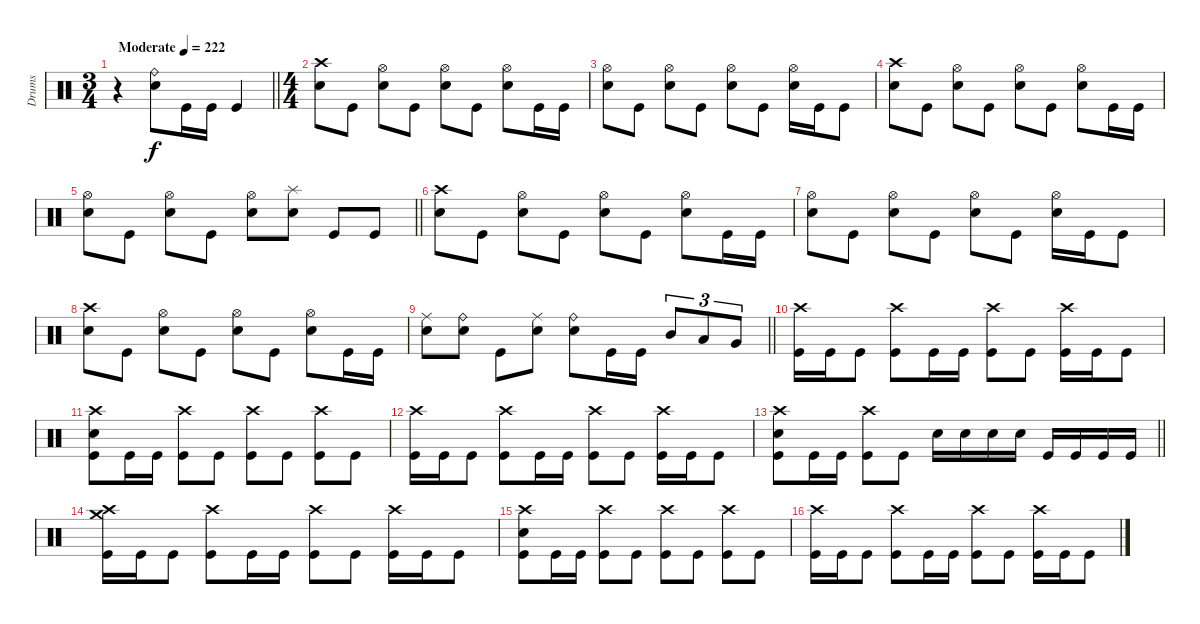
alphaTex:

\track ("Drums" "Drums") {instrument percussion}
\staff
\articulation defaults
\ts (3 4)
\tempo (222 "Moderate")
\clef neutral
\barLineRight lightlight
\ks c
r.4{dy f} ("Ride (bell)" "Electric Snare (hit)").8 "Kick (hit)".16 "Kick (hit)".16 "Kick (hit)".4 |
\ts (4 4)
("Crash high (hit)" "Electric Snare (hit)").8 "Kick (hit)".8 ("Hi-Hat (open)" "Electric Snare (hit)").8 "Kick (hit)".8 ("Hi-Hat (open)" "Electric Snare (hit)").8 "Kick (hit)".8 ("Hi-Hat (open)" "Electric Snare (hit)").8 "Kick (hit)".16 "Kick (hit)".16 |
("Hi-Hat (open)" "Electric Snare (hit)").8 "Kick (hit)".8 ("Hi-Hat (open)" "Electric Snare (hit)").8 "Kick (hit)".8 ("Hi-Hat (open)" "Electric Snare (hit)").8 "Kick (hit)".8 ("Hi-Hat (open)" "Electric Snare (hit)").16 "Kick (hit)".16 "Kick (hit)".8 |
("Crash high (hit)" "Electric Snare (hit)").8 "Kick (hit)".8 ("Hi-Hat (open)" "Electric Snare (hit)").8 "Kick (hit)".8 ("Hi-Hat (open)" "Electric Snare (hit)").8 "Kick (hit)".8 ("Hi-Hat (open)" "Electric Snare (hit)").8 "Kick (hit)".16 "Kick (hit)".16 |
\barLineRight lightlight
("Hi-Hat (open)" "Electric Snare (hit)").8 "Kick (hit)".8 ("Hi-Hat (open)" "Electric Snare (hit)").8 "Kick (hit)".8 ("Hi-Hat (open)" "Electric Snare (hit)").8 ("Splash (hit)" "Electric Snare (hit)").8 "Kick (hit)".8 "Kick (hit)".8 |
("Crash high (hit)" "Electric Snare (hit)").8 "Kick (hit)".8 ("Hi-Hat (open)" "Electric Snare (hit)").8 "Kick (hit)".8 ("Hi-Hat (open)" "Electric Snare (hit)").8 "Kick (hit)".8 ("Hi-Hat (open)" "Electric Snare (hit)").8 "Kick (hit)".16 "Kick (hit)".16 |
("Hi-Hat (open)" "Electric Snare (hit)").8 "Kick (hit)".8 ("Hi-Hat (open)" "Electric Snare (hit)").8 "Kick (hit)".8 ("Hi-Hat (open)" "Electric Snare (hit)").8 "Kick (hit)".8 ("Hi-Hat (open)" "Electric Snare (hit)").16 "Kick (hit)".16 "Kick (hit)".8 |
("Crash high (hit)" "Electric Snare (hit)").8 "Kick (hit)".8 ("Hi-Hat (open)" "Electric Snare (hit)").8 "Kick (hit)".8 ("Hi-Hat (open)" "Electric Snare (hit)").8 "Kick (hit)".8 ("Hi-Hat (open)" "Electric Snare (hit)").8 "Kick (hit)".16 "Kick (hit)".16 |
\barLineRight lightlight
("Ride (middle)" "Electric Snare (hit)").8 ("Ride (bell)" "Electric Snare (hit)").8 "Kick (hit)".8 ("Ride (middle)" "Electric Snare (hit)").8 ("Ride (bell)" "Electric Snare (hit)").8 "Kick (hit)".16 "Kick (hit)".16 "Mid Tom (hit)".8{tu (3 2)} "Low Tom (hit)".8{tu (3 2)} "Very Low Tom (hit)".8{tu (3 2)} |
("Crash high (hit)" "Kick (hit)").16 "Kick (hit)".16 "Kick (hit)".8 ("Crash high (hit)" "Kick (hit)").8 "Kick (hit)".16 "Kick (hit)".16 ("Crash high (hit)" "Kick (hit)").8 "Kick (hit)".8 ("Crash high (hit)" "Kick (hit)").16 "Kick (hit)".16 "Kick (hit)".8 |
("Crash high (hit)" "Electric Snare (hit)" "Kick (hit)").8 "Kick (hit)".16 "Kick (hit)".16 ("Crash high (hit)" "Kick (hit)").8 "Kick (hit)".8 ("Crash high (hit)" "Kick (hit)").8 "Kick (hit)".8 ("Crash high (hit)" "Kick (hit)").8 "Kick (hit)".8 |
("Crash high (hit)" "Kick (hit)").16 "Kick (hit)".16 "Kick (hit)".8 ("Crash high (hit)" "Kick (hit)").8 "Kick (hit)".16 "Kick (hit)".16 ("Crash high (hit)" "Kick (hit)").8 "Kick (hit)".8 ("Crash high (hit)" "Kick (hit)").16 "Kick (hit)".16 "Kick (hit)".8 |
\barLineRight lightlight
("Crash high (hit)" "Electric Snare (hit)" "Kick (hit)").8 "Kick (hit)".16 "Kick (hit)".16 ("Crash high (hit)" "Kick (hit)").8 "Kick (hit)".8 "Electric Snare (hit)".16 "Electric Snare (hit)".16 "Electric Snare (hit)".16 "Electric Snare (hit)".16 "Kick (hit)".16 "Kick (hit)".16 "Kick (hit)".16 "Kick (hit)".16 |
("Crash high (hit)" "Crash medium (hit)" "Kick (hit)").16 "Kick (hit)".16 "Kick (hit)".8 ("Crash high (hit)" "Kick (hit)").8 "Kick (hit)".16 "Kick (hit)".16 ("Crash high (hit)" "Kick (hit)").8 "Kick (hit)".8 ("Crash high (hit)" "Kick (hit)").16 "Kick (hit)".16 "Kick (hit)".8 |
("Crash high (hit)" "Electric Snare (hit)" "Kick (hit)").8 "Kick (hit)".16 "Kick (hit)".16 ("Crash high (hit)" "Kick (hit)").8 "Kick (hit)".8 ("Crash high (hit)" "Kick (hit)").8 "Kick (hit)".8 ("Crash high (hit)" "Kick (hit)").8 "Kick (hit)".8 |
("Crash high (hit)" "Kick (hit)").16 "Kick (hit)".16 "Kick (hit)".8 ("Crash high (hit)" "Kick (hit)").8 "Kick (hit)".16 "Kick (hit)".16 ("Crash high (hit)" "Kick (hit)").8 "Kick (hit)".8 ("Crash high (hit)" "Kick (hit)").16 "Kick (hit)".16 "Kick (hit)".8
